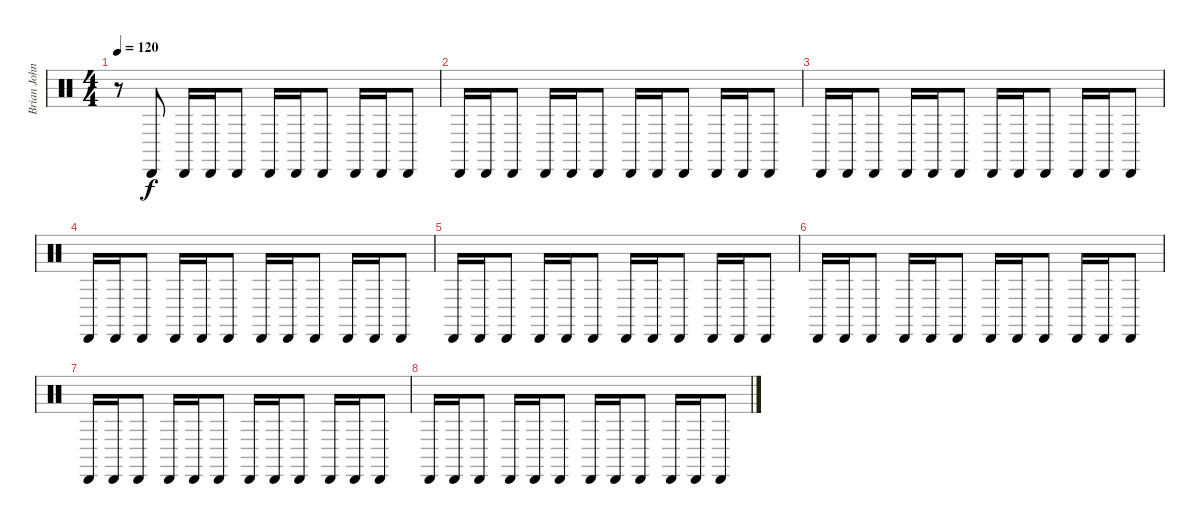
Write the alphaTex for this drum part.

\track ("Brian Johnson - Shaker" "Brian John") {instrument percussion}
\staff {score}
\articulation defaults
\ts (4 4)
\tempo 120
\clef neutral
\ks c
r.8{dy f} "Cabasa (hit)".8 "Cabasa (hit)".16 "Cabasa (hit)".16 "Cabasa (hit)".8 "Cabasa (hit)".16 "Cabasa (hit)".16 "Cabasa (hit)".8 "Cabasa (hit)".16 "Cabasa (hit)".16 "Cabasa (hit)".8 |
"Cabasa (hit)".16 "Cabasa (hit)".16 "Cabasa (hit)".8 "Cabasa (hit)".16 "Cabasa (hit)".16 "Cabasa (hit)".8 "Cabasa (hit)".16 "Cabasa (hit)".16 "Cabasa (hit)".8 "Cabasa (hit)".16 "Cabasa (hit)".16 "Cabasa (hit)".8 |
"Cabasa (hit)".16 "Cabasa (hit)".16 "Cabasa (hit)".8 "Cabasa (hit)".16 "Cabasa (hit)".16 "Cabasa (hit)".8 "Cabasa (hit)".16 "Cabasa (hit)".16 "Cabasa (hit)".8 "Cabasa (hit)".16 "Cabasa (hit)".16 "Cabasa (hit)".8 |
"Cabasa (hit)".16 "Cabasa (hit)".16 "Cabasa (hit)".8 "Cabasa (hit)".16 "Cabasa (hit)".16 "Cabasa (hit)".8 "Cabasa (hit)".16 "Cabasa (hit)".16 "Cabasa (hit)".8 "Cabasa (hit)".16 "Cabasa (hit)".16 "Cabasa (hit)".8 |
"Cabasa (hit)".16 "Cabasa (hit)".16 "Cabasa (hit)".8 "Cabasa (hit)".16 "Cabasa (hit)".16 "Cabasa (hit)".8 "Cabasa (hit)".16 "Cabasa (hit)".16 "Cabasa (hit)".8 "Cabasa (hit)".16 "Cabasa (hit)".16 "Cabasa (hit)".8 |
"Cabasa (hit)".16 "Cabasa (hit)".16 "Cabasa (hit)".8 "Cabasa (hit)".16 "Cabasa (hit)".16 "Cabasa (hit)".8 "Cabasa (hit)".16 "Cabasa (hit)".16 "Cabasa (hit)".8 "Cabasa (hit)".16 "Cabasa (hit)".16 "Cabasa (hit)".8 |
"Cabasa (hit)".16 "Cabasa (hit)".16 "Cabasa (hit)".8 "Cabasa (hit)".16 "Cabasa (hit)".16 "Cabasa (hit)".8 "Cabasa (hit)".16 "Cabasa (hit)".16 "Cabasa (hit)".8 "Cabasa (hit)".16 "Cabasa (hit)".16 "Cabasa (hit)".8 |
"Cabasa (hit)".16 "Cabasa (hit)".16 "Cabasa (hit)".8 "Cabasa (hit)".16 "Cabasa (hit)".16 "Cabasa (hit)".8 "Cabasa (hit)".16 "Cabasa (hit)".16 "Cabasa (hit)".8 "Cabasa (hit)".16 "Cabasa (hit)".16 "Cabasa (hit)".8
